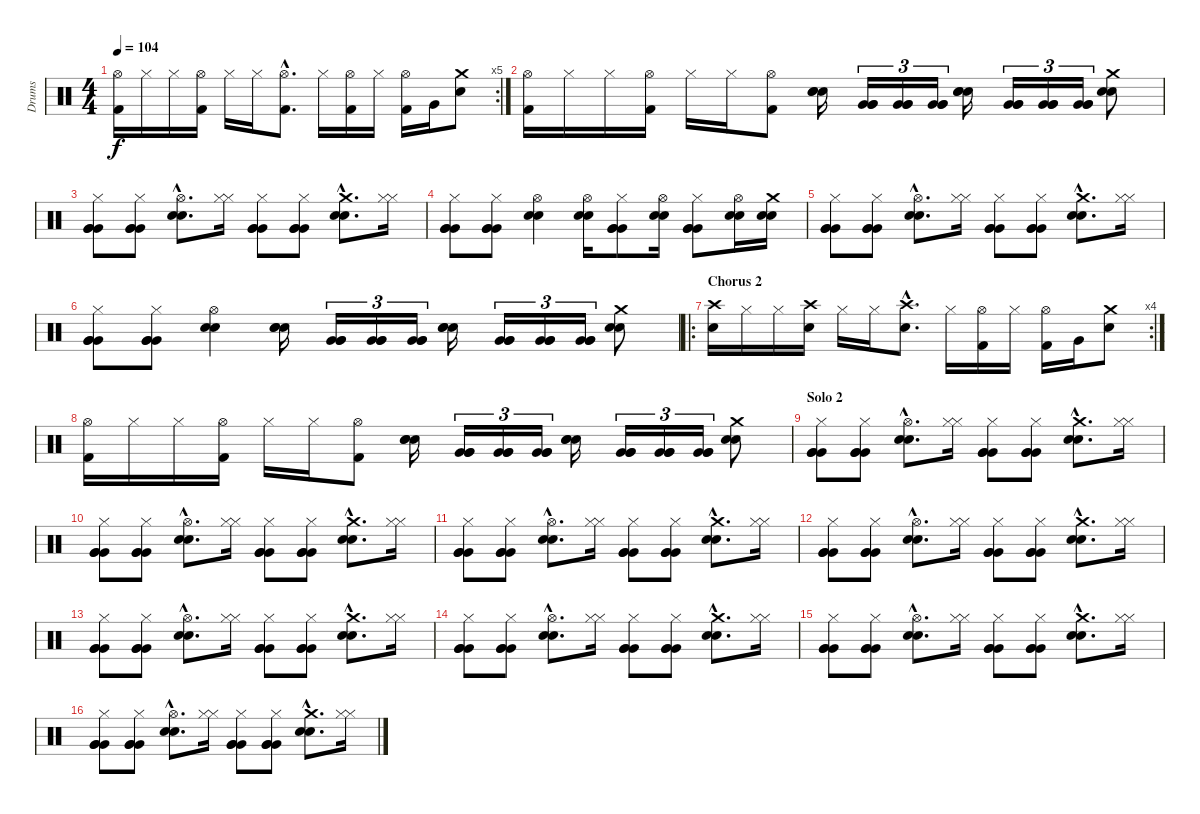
\track ("Drums" "Drums") {instrument percussion}
\staff {score}
\articulation defaults
\rc 5
\ts (4 4)
\tempo 104
\clef neutral
\ks c
("Hi-Hat (open)" "Kick (hit) 2").16{dy f} "Hi-Hat (closed)".16 "Hi-Hat (closed)".16 ("Hi-Hat (open)" "Kick (hit) 2").16 "Hi-Hat (closed)".16 "Hi-Hat (closed)".16 ("Hi-Hat (open)"{hac} "Kick (hit) 2"{hac}).8{d} "Hi-Hat (closed)".16 ("Hi-Hat (open)" "Kick (hit) 2").16 "Hi-Hat (closed)".16 ("Hi-Hat (open)" "Kick (hit) 2").16 "Very Low Tom (hit)".16 ("Crash medium (hit)" "Snare (hit) 2").8 |
("Hi-Hat (open)" "Kick (hit) 2").16 "Hi-Hat (closed)".16 "Hi-Hat (closed)".16 ("Hi-Hat (open)" "Kick (hit) 2").16 "Hi-Hat (closed)".16 "Hi-Hat (closed)".16 ("Hi-Hat (open)" "Kick (hit) 2").8 ("Snare (hit) 2" "Snare (hit) 2" "Snare (hit) 2").16 ("Very Low Tom (hit)" "Very Low Tom (hit)" "Very Low Tom (hit)").16{tu (3 2)} ("Very Low Tom (hit)" "Very Low Tom (hit)" "Very Low Tom (hit)").16{tu (3 2)} ("Very Low Tom (hit)" "Very Low Tom (hit)" "Very Low Tom (hit)").16{tu (3 2)} ("Snare (hit) 2" "Snare (hit) 2" "Snare (hit) 2").16 ("Very Low Tom (hit)" "Very Low Tom (hit)" "Very Low Tom (hit)").16{tu (3 2)} ("Very Low Tom (hit)" "Very Low Tom (hit)" "Very Low Tom (hit)").16{tu (3 2)} ("Very Low Tom (hit)" "Very Low Tom (hit)" "Very Low Tom (hit)").16{tu (3 2)} ("Crash medium (hit)" "Snare (hit) 2" "Snare (hit) 2").8 |
("Very Low Tom (hit)" "Very Low Tom (hit)" "Hi-Hat (closed)" "Very Low Tom (hit)").8 ("Very Low Tom (hit)" "Very Low Tom (hit)" "Hi-Hat (closed)" "Very Low Tom (hit)").8 ("Hi-Hat (open)"{hac} "Snare (hit) 2"{hac} "Snare (hit) 2"{hac}).8{d} ("Hi-Hat (closed)" "Hi-Hat (closed)").16 ("Very Low Tom (hit)" "Very Low Tom (hit)" "Hi-Hat (closed)" "Very Low Tom (hit)").8 ("Very Low Tom (hit)" "Very Low Tom (hit)" "Hi-Hat (closed)" "Very Low Tom (hit)").8 ("Crash medium (hit)"{hac} "Snare (hit) 2"{hac} "Snare (hit) 2"{hac}).8{d} ("Hi-Hat (closed)" "Hi-Hat (closed)").16 |
("Very Low Tom (hit)" "Very Low Tom (hit)" "Hi-Hat (closed)" "Very Low Tom (hit)").8 ("Very Low Tom (hit)" "Very Low Tom (hit)" "Hi-Hat (closed)" "Very Low Tom (hit)").8 ("Hi-Hat (open)" "Snare (hit) 2" "Snare (hit) 2").4 ("Hi-Hat (open)" "Snare (hit) 2" "Snare (hit) 2").16 ("Very Low Tom (hit)" "Very Low Tom (hit)" "Hi-Hat (closed)" "Very Low Tom (hit)").8 ("Hi-Hat (open)" "Snare (hit) 2" "Snare (hit) 2").16 ("Very Low Tom (hit)" "Very Low Tom (hit)" "Hi-Hat (closed)" "Very Low Tom (hit)").8 ("Hi-Hat (open)" "Snare (hit) 2" "Snare (hit) 2").16 ("Crash medium (hit)" "Snare (hit) 2" "Snare (hit) 2").16 |
("Very Low Tom (hit)" "Very Low Tom (hit)" "Hi-Hat (closed)" "Very Low Tom (hit)").8 ("Very Low Tom (hit)" "Very Low Tom (hit)" "Hi-Hat (closed)" "Very Low Tom (hit)").8 ("Hi-Hat (open)"{hac} "Snare (hit) 2"{hac} "Snare (hit) 2"{hac}).8{d} ("Hi-Hat (closed)" "Hi-Hat (closed)").16 ("Very Low Tom (hit)" "Very Low Tom (hit)" "Hi-Hat (closed)" "Very Low Tom (hit)").8 ("Very Low Tom (hit)" "Very Low Tom (hit)" "Hi-Hat (closed)" "Very Low Tom (hit)").8 ("Crash medium (hit)"{hac} "Snare (hit) 2"{hac} "Snare (hit) 2"{hac}).8{d} ("Hi-Hat (closed)" "Hi-Hat (closed)").16 |
("Very Low Tom (hit)" "Very Low Tom (hit)" "Hi-Hat (closed)" "Very Low Tom (hit)").8 ("Very Low Tom (hit)" "Very Low Tom (hit)" "Hi-Hat (closed)" "Very Low Tom (hit)").8 ("Hi-Hat (open)" "Snare (hit) 2" "Snare (hit) 2").4 ("Snare (hit) 2" "Snare (hit) 2" "Snare (hit) 2").16 ("Very Low Tom (hit)" "Very Low Tom (hit)" "Very Low Tom (hit)").16{tu (3 2)} ("Very Low Tom (hit)" "Very Low Tom (hit)" "Very Low Tom (hit)").16{tu (3 2)} ("Very Low Tom (hit)" "Very Low Tom (hit)" "Very Low Tom (hit)").16{tu (3 2)} ("Snare (hit) 2" "Snare (hit) 2" "Snare (hit) 2").16 ("Very Low Tom (hit)" "Very Low Tom (hit)" "Very Low Tom (hit)").16{tu (3 2)} ("Very Low Tom (hit)" "Very Low Tom (hit)" "Very Low Tom (hit)").16{tu (3 2)} ("Very Low Tom (hit)" "Very Low Tom (hit)" "Very Low Tom (hit)").16{tu (3 2)} ("Crash medium (hit)" "Snare (hit) 2" "Snare (hit) 2").8 |
\ro
\rc 4
\section ("" "Chorus 2")
("Crash high (hit)" "Snare (hit) 2").16 "Hi-Hat (closed)".16 "Hi-Hat (closed)".16 ("Crash high (hit)" "Snare (hit) 2").16 "Hi-Hat (closed)".16 "Hi-Hat (closed)".16 ("Crash high (hit)"{hac} "Snare (hit) 2"{hac}).8{d} "Hi-Hat (closed)".16 ("Hi-Hat (open)" "Kick (hit) 2").16 "Hi-Hat (closed)".16 ("Hi-Hat (open)" "Kick (hit) 2").16 "Very Low Tom (hit)".16 ("Crash medium (hit)" "Snare (hit) 2").8 |
("Hi-Hat (open)" "Kick (hit) 2").16 "Hi-Hat (closed)".16 "Hi-Hat (closed)".16 ("Hi-Hat (open)" "Kick (hit) 2").16 "Hi-Hat (closed)".16 "Hi-Hat (closed)".16 ("Hi-Hat (open)" "Kick (hit) 2").8 ("Snare (hit) 2" "Snare (hit) 2" "Snare (hit) 2").16 ("Very Low Tom (hit)" "Very Low Tom (hit)" "Very Low Tom (hit)").16{tu (3 2)} ("Very Low Tom (hit)" "Very Low Tom (hit)" "Very Low Tom (hit)").16{tu (3 2)} ("Very Low Tom (hit)" "Very Low Tom (hit)" "Very Low Tom (hit)").16{tu (3 2)} ("Snare (hit) 2" "Snare (hit) 2" "Snare (hit) 2").16 ("Very Low Tom (hit)" "Very Low Tom (hit)" "Very Low Tom (hit)").16{tu (3 2)} ("Very Low Tom (hit)" "Very Low Tom (hit)" "Very Low Tom (hit)").16{tu (3 2)} ("Very Low Tom (hit)" "Very Low Tom (hit)" "Very Low Tom (hit)").16{tu (3 2)} ("Crash medium (hit)" "Snare (hit) 2" "Snare (hit) 2").8 |
\section ("" "Solo 2")
("Very Low Tom (hit)" "Very Low Tom (hit)" "Hi-Hat (closed)" "Very Low Tom (hit)").8 ("Very Low Tom (hit)" "Very Low Tom (hit)" "Hi-Hat (closed)" "Very Low Tom (hit)").8 ("Hi-Hat (open)"{hac} "Snare (hit) 2"{hac} "Snare (hit) 2"{hac}).8{d} ("Hi-Hat (closed)" "Hi-Hat (closed)").16 ("Very Low Tom (hit)" "Very Low Tom (hit)" "Hi-Hat (closed)" "Very Low Tom (hit)").8 ("Very Low Tom (hit)" "Very Low Tom (hit)" "Hi-Hat (closed)" "Very Low Tom (hit)").8 ("Crash medium (hit)"{hac} "Snare (hit) 2"{hac} "Snare (hit) 2"{hac}).8{d} ("Hi-Hat (closed)" "Hi-Hat (closed)").16 |
("Very Low Tom (hit)" "Very Low Tom (hit)" "Hi-Hat (closed)" "Very Low Tom (hit)").8 ("Very Low Tom (hit)" "Very Low Tom (hit)" "Hi-Hat (closed)" "Very Low Tom (hit)").8 ("Hi-Hat (open)"{hac} "Snare (hit) 2"{hac} "Snare (hit) 2"{hac}).8{d} ("Hi-Hat (closed)" "Hi-Hat (closed)").16 ("Very Low Tom (hit)" "Very Low Tom (hit)" "Hi-Hat (closed)" "Very Low Tom (hit)").8 ("Very Low Tom (hit)" "Very Low Tom (hit)" "Hi-Hat (closed)" "Very Low Tom (hit)").8 ("Crash medium (hit)"{hac} "Snare (hit) 2"{hac} "Snare (hit) 2"{hac}).8{d} ("Hi-Hat (closed)" "Hi-Hat (closed)").16 |
("Very Low Tom (hit)" "Very Low Tom (hit)" "Hi-Hat (closed)" "Very Low Tom (hit)").8 ("Very Low Tom (hit)" "Very Low Tom (hit)" "Hi-Hat (closed)" "Very Low Tom (hit)").8 ("Hi-Hat (open)"{hac} "Snare (hit) 2"{hac} "Snare (hit) 2"{hac}).8{d} ("Hi-Hat (closed)" "Hi-Hat (closed)").16 ("Very Low Tom (hit)" "Very Low Tom (hit)" "Hi-Hat (closed)" "Very Low Tom (hit)").8 ("Very Low Tom (hit)" "Very Low Tom (hit)" "Hi-Hat (closed)" "Very Low Tom (hit)").8 ("Crash medium (hit)"{hac} "Snare (hit) 2"{hac} "Snare (hit) 2"{hac}).8{d} ("Hi-Hat (closed)" "Hi-Hat (closed)").16 |
("Very Low Tom (hit)" "Very Low Tom (hit)" "Hi-Hat (closed)" "Very Low Tom (hit)").8 ("Very Low Tom (hit)" "Very Low Tom (hit)" "Hi-Hat (closed)" "Very Low Tom (hit)").8 ("Hi-Hat (open)"{hac} "Snare (hit) 2"{hac} "Snare (hit) 2"{hac}).8{d} ("Hi-Hat (closed)" "Hi-Hat (closed)").16 ("Very Low Tom (hit)" "Very Low Tom (hit)" "Hi-Hat (closed)" "Very Low Tom (hit)").8 ("Very Low Tom (hit)" "Very Low Tom (hit)" "Hi-Hat (closed)" "Very Low Tom (hit)").8 ("Crash medium (hit)"{hac} "Snare (hit) 2"{hac} "Snare (hit) 2"{hac}).8{d} ("Hi-Hat (closed)" "Hi-Hat (closed)").16 |
("Very Low Tom (hit)" "Very Low Tom (hit)" "Hi-Hat (closed)" "Very Low Tom (hit)").8 ("Very Low Tom (hit)" "Very Low Tom (hit)" "Hi-Hat (closed)" "Very Low Tom (hit)").8 ("Hi-Hat (open)"{hac} "Snare (hit) 2"{hac} "Snare (hit) 2"{hac}).8{d} ("Hi-Hat (closed)" "Hi-Hat (closed)").16 ("Very Low Tom (hit)" "Very Low Tom (hit)" "Hi-Hat (closed)" "Very Low Tom (hit)").8 ("Very Low Tom (hit)" "Very Low Tom (hit)" "Hi-Hat (closed)" "Very Low Tom (hit)").8 ("Crash medium (hit)"{hac} "Snare (hit) 2"{hac} "Snare (hit) 2"{hac}).8{d} ("Hi-Hat (closed)" "Hi-Hat (closed)").16 |
("Very Low Tom (hit)" "Very Low Tom (hit)" "Hi-Hat (closed)" "Very Low Tom (hit)").8 ("Very Low Tom (hit)" "Very Low Tom (hit)" "Hi-Hat (closed)" "Very Low Tom (hit)").8 ("Hi-Hat (open)"{hac} "Snare (hit) 2"{hac} "Snare (hit) 2"{hac}).8{d} ("Hi-Hat (closed)" "Hi-Hat (closed)").16 ("Very Low Tom (hit)" "Very Low Tom (hit)" "Hi-Hat (closed)" "Very Low Tom (hit)").8 ("Very Low Tom (hit)" "Very Low Tom (hit)" "Hi-Hat (closed)" "Very Low Tom (hit)").8 ("Crash medium (hit)"{hac} "Snare (hit) 2"{hac} "Snare (hit) 2"{hac}).8{d} ("Hi-Hat (closed)" "Hi-Hat (closed)").16 |
("Very Low Tom (hit)" "Very Low Tom (hit)" "Hi-Hat (closed)" "Very Low Tom (hit)").8 ("Very Low Tom (hit)" "Very Low Tom (hit)" "Hi-Hat (closed)" "Very Low Tom (hit)").8 ("Hi-Hat (open)"{hac} "Snare (hit) 2"{hac} "Snare (hit) 2"{hac}).8{d} ("Hi-Hat (closed)" "Hi-Hat (closed)").16 ("Very Low Tom (hit)" "Very Low Tom (hit)" "Hi-Hat (closed)" "Very Low Tom (hit)").8 ("Very Low Tom (hit)" "Very Low Tom (hit)" "Hi-Hat (closed)" "Very Low Tom (hit)").8 ("Crash medium (hit)"{hac} "Snare (hit) 2"{hac} "Snare (hit) 2"{hac}).8{d} ("Hi-Hat (closed)" "Hi-Hat (closed)").16 |
("Very Low Tom (hit)" "Very Low Tom (hit)" "Hi-Hat (closed)" "Very Low Tom (hit)").8 ("Very Low Tom (hit)" "Very Low Tom (hit)" "Hi-Hat (closed)" "Very Low Tom (hit)").8 ("Hi-Hat (open)"{hac} "Snare (hit) 2"{hac} "Snare (hit) 2"{hac}).8{d} ("Hi-Hat (closed)" "Hi-Hat (closed)").16 ("Very Low Tom (hit)" "Very Low Tom (hit)" "Hi-Hat (closed)" "Very Low Tom (hit)").8 ("Very Low Tom (hit)" "Very Low Tom (hit)" "Hi-Hat (closed)" "Very Low Tom (hit)").8 ("Crash medium (hit)"{hac} "Snare (hit) 2"{hac} "Snare (hit) 2"{hac}).8{d} ("Hi-Hat (closed)" "Hi-Hat (closed)").16
